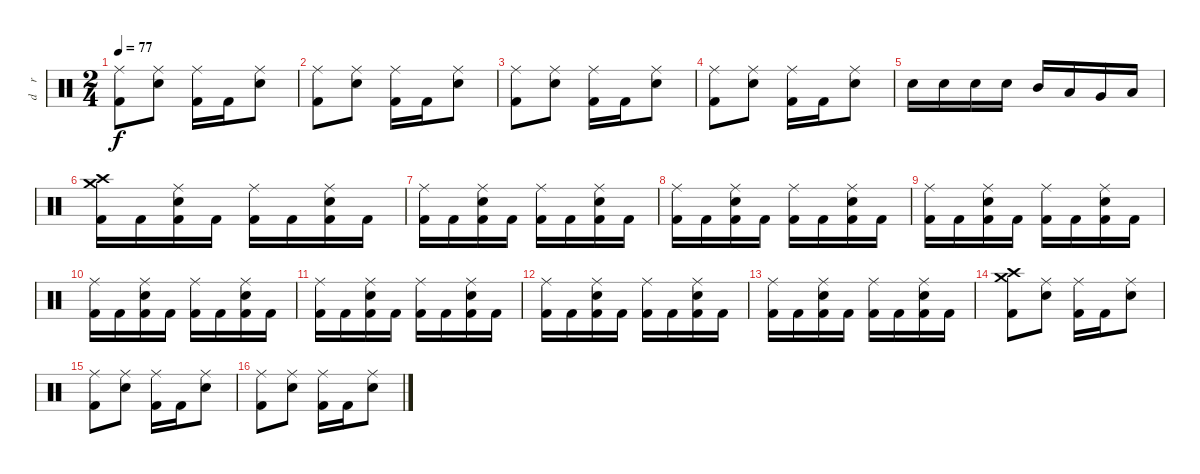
\track ("d    r     u    m    s" "d    r    ") {instrument percussion}
\staff {score}
\articulation defaults
\ts (2 4)
\tempo 77
\clef neutral
\ks c
("Ride (middle)" "Kick (hit) 2").8{dy f} ("Ride (middle)" "Electric Snare (hit)").8 ("Ride (middle)" "Kick (hit) 2").16 "Kick (hit) 2".16 ("Ride (middle)" "Electric Snare (hit)").8 |
("Ride (middle)" "Kick (hit) 2").8 ("Ride (middle)" "Electric Snare (hit)").8 ("Ride (middle)" "Kick (hit) 2").16 "Kick (hit) 2".16 ("Ride (middle)" "Electric Snare (hit)").8 |
("Ride (middle)" "Kick (hit) 2").8 ("Ride (middle)" "Electric Snare (hit)").8 ("Ride (middle)" "Kick (hit) 2").16 "Kick (hit) 2".16 ("Ride (middle)" "Electric Snare (hit)").8 |
("Ride (middle)" "Kick (hit) 2").8 ("Ride (middle)" "Electric Snare (hit)").8 ("Ride (middle)" "Kick (hit) 2").16 "Kick (hit) 2".16 ("Ride (middle)" "Electric Snare (hit)").8 |
"Electric Snare (hit)".16 "Electric Snare (hit)".16 "Electric Snare (hit)".16 "Electric Snare (hit)".16 "Mid Tom (hit)".16 "Low Tom (hit)".16 "Very Low Tom (hit)".16 "Low Floor Tom (hit)".16 |
("Crash high (hit)" "Crash medium (hit)" "Kick (hit) 2").16 "Kick (hit) 2".16 ("Ride (middle)" "Electric Snare (hit)" "Kick (hit) 2").16 "Kick (hit) 2".16 ("Ride (middle)" "Kick (hit) 2").16 "Kick (hit) 2".16 ("Ride (middle)" "Electric Snare (hit)" "Kick (hit) 2").16 "Kick (hit) 2".16 |
("Ride (middle)" "Kick (hit) 2").16 "Kick (hit) 2".16 ("Ride (middle)" "Electric Snare (hit)" "Kick (hit) 2").16 "Kick (hit) 2".16 ("Ride (middle)" "Kick (hit) 2").16 "Kick (hit) 2".16 ("Ride (middle)" "Electric Snare (hit)" "Kick (hit) 2").16 "Kick (hit) 2".16 |
("Ride (middle)" "Kick (hit) 2").16 "Kick (hit) 2".16 ("Ride (middle)" "Electric Snare (hit)" "Kick (hit) 2").16 "Kick (hit) 2".16 ("Ride (middle)" "Kick (hit) 2").16 "Kick (hit) 2".16 ("Ride (middle)" "Electric Snare (hit)" "Kick (hit) 2").16 "Kick (hit) 2".16 |
("Ride (middle)" "Kick (hit) 2").16 "Kick (hit) 2".16 ("Ride (middle)" "Electric Snare (hit)" "Kick (hit) 2").16 "Kick (hit) 2".16 ("Ride (middle)" "Kick (hit) 2").16 "Kick (hit) 2".16 ("Ride (middle)" "Electric Snare (hit)" "Kick (hit) 2").16 "Kick (hit) 2".16 |
("Ride (middle)" "Kick (hit) 2").16 "Kick (hit) 2".16 ("Ride (middle)" "Electric Snare (hit)" "Kick (hit) 2").16 "Kick (hit) 2".16 ("Ride (middle)" "Kick (hit) 2").16 "Kick (hit) 2".16 ("Ride (middle)" "Electric Snare (hit)" "Kick (hit) 2").16 "Kick (hit) 2".16 |
("Ride (middle)" "Kick (hit) 2").16 "Kick (hit) 2".16 ("Ride (middle)" "Electric Snare (hit)" "Kick (hit) 2").16 "Kick (hit) 2".16 ("Ride (middle)" "Kick (hit) 2").16 "Kick (hit) 2".16 ("Ride (middle)" "Electric Snare (hit)" "Kick (hit) 2").16 "Kick (hit) 2".16 |
("Ride (middle)" "Kick (hit) 2").16 "Kick (hit) 2".16 ("Ride (middle)" "Electric Snare (hit)" "Kick (hit) 2").16 "Kick (hit) 2".16 ("Ride (middle)" "Kick (hit) 2").16 "Kick (hit) 2".16 ("Ride (middle)" "Electric Snare (hit)" "Kick (hit) 2").16 "Kick (hit) 2".16 |
("Ride (middle)" "Kick (hit) 2").16 "Kick (hit) 2".16 ("Ride (middle)" "Electric Snare (hit)" "Kick (hit) 2").16 "Kick (hit) 2".16 ("Ride (middle)" "Kick (hit) 2").16 "Kick (hit) 2".16 ("Ride (middle)" "Electric Snare (hit)" "Kick (hit) 2").16 "Kick (hit) 2".16 |
("Crash high (hit)" "Crash medium (hit)" "Kick (hit) 2").8 ("Ride (middle)" "Electric Snare (hit)").8 ("Ride (middle)" "Kick (hit) 2").16 "Kick (hit) 2".16 ("Ride (middle)" "Electric Snare (hit)").8 |
("Ride (middle)" "Kick (hit) 2").8 ("Ride (middle)" "Electric Snare (hit)").8 ("Ride (middle)" "Kick (hit) 2").16 "Kick (hit) 2".16 ("Ride (middle)" "Electric Snare (hit)").8 |
("Ride (middle)" "Kick (hit) 2").8 ("Ride (middle)" "Electric Snare (hit)").8 ("Ride (middle)" "Kick (hit) 2").16 "Kick (hit) 2".16 ("Ride (middle)" "Electric Snare (hit)").8
